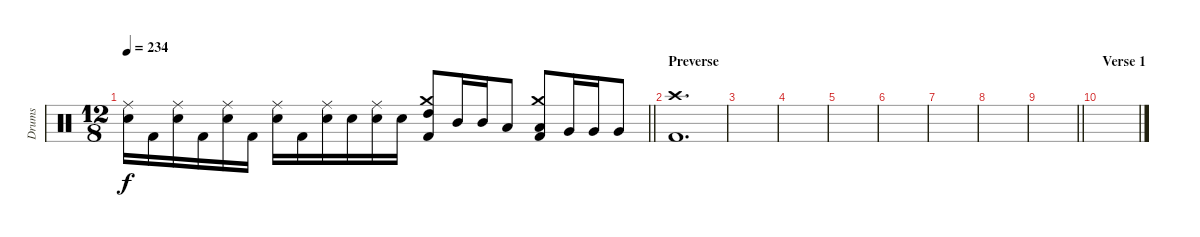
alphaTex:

\track ("Drums" "Drums") {instrument percussion}
\staff {score}
\articulation defaults
\ts (12 8)
\tempo 234
\clef neutral
\barLineRight lightlight
\ks c
("Ride (middle)" "Snare (hit) 2").16{dy f} "Kick (hit) 2".16 ("Ride (middle)" "Snare (hit) 2").16 "Kick (hit) 2".16 ("Ride (middle)" "Snare (hit) 2").16 "Kick (hit) 2".16 ("Ride (middle)" "Snare (hit) 2").16 "Kick (hit) 2".16 ("Ride (middle)" "Snare (hit) 2").16 "Snare (hit) 2".16 ("Ride (middle)" "Snare (hit) 2").16 "Snare (hit) 2".16 ("Crash medium (hit)" "High Tom (hit)" "Kick (hit) 2").8 "Mid Tom (hit)".16 "Mid Tom (hit)".16 "Low Tom (hit)".8 ("Crash medium (hit)" "Low Tom (hit)" "Kick (hit) 2").8 "Very Low Tom (hit)".16 "Very Low Tom (hit)".16 "Very Low Tom (hit)".8 |
\section ("" "Preverse")
("Crash high (hit)" "Kick (hit) 2").1{d} |
|
|
|
|
|
|
\barLineRight lightlight
|
\section ("" "Verse 1")
